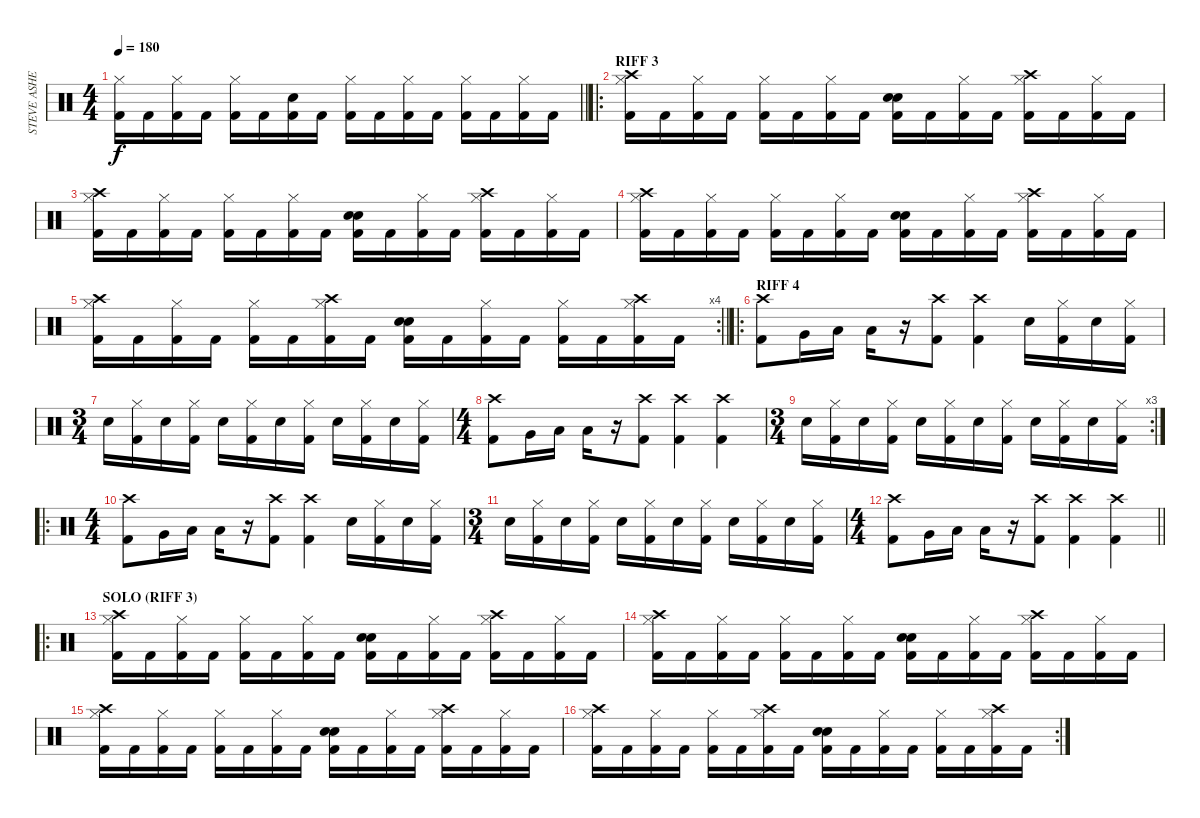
\track ("STEVE ASHEIM" "STEVE ASHE") {instrument percussion}
\staff {score}
\articulation defaults
\ts (4 4)
\tempo 180
\clef neutral
\barLineRight lightlight
\ks c
("Hi-Hat (closed)" "Kick (hit) 2").16{dy f} "Kick (hit) 2".16 ("Hi-Hat (closed)" "Kick (hit) 2").16 "Kick (hit) 2".16 ("Hi-Hat (closed)" "Kick (hit) 2").16 "Kick (hit) 2".16 ("Snare (hit) 2" "Kick (hit) 2").16 "Kick (hit) 2".16 ("Hi-Hat (closed)" "Kick (hit) 2").16 "Kick (hit) 2".16 ("Hi-Hat (closed)" "Kick (hit) 2").16 "Kick (hit) 2".16 ("Hi-Hat (closed)" "Kick (hit) 2").16 "Kick (hit) 2".16 ("Hi-Hat (closed)" "Kick (hit) 2").16 "Kick (hit) 2".16 |
\ro
\section ("" "RIFF 3")
("Crash high (hit)" "Hi-Hat (closed)" "Kick (hit) 2").16 "Kick (hit) 2".16 ("Hi-Hat (closed)" "Kick (hit) 2").16 "Kick (hit) 2".16 ("Hi-Hat (closed)" "Kick (hit) 2").16 "Kick (hit) 2".16 ("Hi-Hat (closed)" "Kick (hit) 2").16 "Kick (hit) 2".16 ("Electric Snare (hit)" "Snare (hit) 2" "Kick (hit) 2").16 "Kick (hit) 2".16 ("Hi-Hat (closed)" "Kick (hit) 2").16 "Kick (hit) 2".16 ("Crash high (hit)" "Hi-Hat (closed)" "Kick (hit) 2").16 "Kick (hit) 2".16 ("Hi-Hat (closed)" "Kick (hit) 2").16 "Kick (hit) 2".16 |
("Crash high (hit)" "Hi-Hat (closed)" "Kick (hit) 2").16 "Kick (hit) 2".16 ("Hi-Hat (closed)" "Kick (hit) 2").16 "Kick (hit) 2".16 ("Hi-Hat (closed)" "Kick (hit) 2").16 "Kick (hit) 2".16 ("Hi-Hat (closed)" "Kick (hit) 2").16 "Kick (hit) 2".16 ("Electric Snare (hit)" "Snare (hit) 2" "Kick (hit) 2").16 "Kick (hit) 2".16 ("Hi-Hat (closed)" "Kick (hit) 2").16 "Kick (hit) 2".16 ("Crash high (hit)" "Hi-Hat (closed)" "Kick (hit) 2").16 "Kick (hit) 2".16 ("Hi-Hat (closed)" "Kick (hit) 2").16 "Kick (hit) 2".16 |
("Crash high (hit)" "Hi-Hat (closed)" "Kick (hit) 2").16 "Kick (hit) 2".16 ("Hi-Hat (closed)" "Kick (hit) 2").16 "Kick (hit) 2".16 ("Hi-Hat (closed)" "Kick (hit) 2").16 "Kick (hit) 2".16 ("Hi-Hat (closed)" "Kick (hit) 2").16 "Kick (hit) 2".16 ("Electric Snare (hit)" "Snare (hit) 2" "Kick (hit) 2").16 "Kick (hit) 2".16 ("Hi-Hat (closed)" "Kick (hit) 2").16 "Kick (hit) 2".16 ("Crash high (hit)" "Hi-Hat (closed)" "Kick (hit) 2").16 "Kick (hit) 2".16 ("Hi-Hat (closed)" "Kick (hit) 2").16 "Kick (hit) 2".16 |
\rc 4
\barLineRight lightlight
("Crash high (hit)" "Hi-Hat (closed)" "Kick (hit) 2").16 "Kick (hit) 2".16 ("Hi-Hat (closed)" "Kick (hit) 2").16 "Kick (hit) 2".16 ("Hi-Hat (closed)" "Kick (hit) 2").16 "Kick (hit) 2".16 ("Crash high (hit)" "Hi-Hat (closed)" "Kick (hit) 2").16 "Kick (hit) 2".16 ("Electric Snare (hit)" "Snare (hit) 2" "Kick (hit) 2").16 "Kick (hit) 2".16 ("Hi-Hat (closed)" "Kick (hit) 2").16 "Kick (hit) 2".16 ("Hi-Hat (closed)" "Kick (hit) 2").16 "Kick (hit) 2".16 ("Crash high (hit)" "Hi-Hat (closed)" "Kick (hit) 2").16 "Kick (hit) 2".16 |
\ro
\section ("" "RIFF 4")
("Crash high (hit)" "Kick (hit) 2").8 "Very Low Tom (hit)".16 "Low Tom (hit)".16 "Low Tom (hit)".16 r.16 ("Crash high (hit)" "Kick (hit) 2").8 ("Crash high (hit)" "Kick (hit) 2").4 "Snare (hit) 2".16 ("Hi-Hat (closed)" "Kick (hit) 2").16 "Snare (hit) 2".16 ("Hi-Hat (closed)" "Kick (hit) 2").16 |
\ts (3 4)
"Snare (hit) 2".16 ("Hi-Hat (closed)" "Kick (hit) 2").16 "Snare (hit) 2".16 ("Hi-Hat (closed)" "Kick (hit) 2").16 "Snare (hit) 2".16 ("Hi-Hat (closed)" "Kick (hit) 2").16 "Snare (hit) 2".16 ("Hi-Hat (closed)" "Kick (hit) 2").16 "Snare (hit) 2".16 ("Hi-Hat (closed)" "Kick (hit) 2").16 "Snare (hit) 2".16 ("Hi-Hat (closed)" "Kick (hit) 2").16 |
\ts (4 4)
("Crash high (hit)" "Kick (hit) 2").8 "Very Low Tom (hit)".16 "Low Tom (hit)".16 "Low Tom (hit)".16 r.16 ("Crash high (hit)" "Kick (hit) 2").8 ("Crash high (hit)" "Kick (hit) 2").4 ("Crash high (hit)" "Kick (hit) 2").4 |
\rc 3
\ts (3 4)
"Snare (hit) 2".16 ("Hi-Hat (closed)" "Kick (hit) 2").16 "Snare (hit) 2".16 ("Hi-Hat (closed)" "Kick (hit) 2").16 "Snare (hit) 2".16 ("Hi-Hat (closed)" "Kick (hit) 2").16 "Snare (hit) 2".16 ("Hi-Hat (closed)" "Kick (hit) 2").16 "Snare (hit) 2".16 ("Hi-Hat (closed)" "Kick (hit) 2").16 "Snare (hit) 2".16 ("Hi-Hat (closed)" "Kick (hit) 2").16 |
\ro
\ts (4 4)
("Crash high (hit)" "Kick (hit) 2").8 "Very Low Tom (hit)".16 "Low Tom (hit)".16 "Low Tom (hit)".16 r.16 ("Crash high (hit)" "Kick (hit) 2").8 ("Crash high (hit)" "Kick (hit) 2").4 "Snare (hit) 2".16 ("Hi-Hat (closed)" "Kick (hit) 2").16 "Snare (hit) 2".16 ("Hi-Hat (closed)" "Kick (hit) 2").16 |
\ts (3 4)
"Snare (hit) 2".16 ("Hi-Hat (closed)" "Kick (hit) 2").16 "Snare (hit) 2".16 ("Hi-Hat (closed)" "Kick (hit) 2").16 "Snare (hit) 2".16 ("Hi-Hat (closed)" "Kick (hit) 2").16 "Snare (hit) 2".16 ("Hi-Hat (closed)" "Kick (hit) 2").16 "Snare (hit) 2".16 ("Hi-Hat (closed)" "Kick (hit) 2").16 "Snare (hit) 2".16 ("Hi-Hat (closed)" "Kick (hit) 2").16 |
\ts (4 4)
\barLineRight lightlight
("Crash high (hit)" "Kick (hit) 2").8 "Very Low Tom (hit)".16 "Low Tom (hit)".16 "Low Tom (hit)".16 r.16 ("Crash high (hit)" "Kick (hit) 2").8 ("Crash high (hit)" "Kick (hit) 2").4 ("Crash high (hit)" "Kick (hit) 2").4 |
\ro
\section ("" "SOLO (RIFF 3)")
("Crash high (hit)" "Hi-Hat (closed)" "Kick (hit) 2").16 "Kick (hit) 2".16 ("Hi-Hat (closed)" "Kick (hit) 2").16 "Kick (hit) 2".16 ("Hi-Hat (closed)" "Kick (hit) 2").16 "Kick (hit) 2".16 ("Hi-Hat (closed)" "Kick (hit) 2").16 "Kick (hit) 2".16 ("Electric Snare (hit)" "Snare (hit) 2" "Kick (hit) 2").16 "Kick (hit) 2".16 ("Hi-Hat (closed)" "Kick (hit) 2").16 "Kick (hit) 2".16 ("Crash high (hit)" "Hi-Hat (closed)" "Kick (hit) 2").16 "Kick (hit) 2".16 ("Hi-Hat (closed)" "Kick (hit) 2").16 "Kick (hit) 2".16 |
("Crash high (hit)" "Hi-Hat (closed)" "Kick (hit) 2").16 "Kick (hit) 2".16 ("Hi-Hat (closed)" "Kick (hit) 2").16 "Kick (hit) 2".16 ("Hi-Hat (closed)" "Kick (hit) 2").16 "Kick (hit) 2".16 ("Hi-Hat (closed)" "Kick (hit) 2").16 "Kick (hit) 2".16 ("Electric Snare (hit)" "Snare (hit) 2" "Kick (hit) 2").16 "Kick (hit) 2".16 ("Hi-Hat (closed)" "Kick (hit) 2").16 "Kick (hit) 2".16 ("Crash high (hit)" "Hi-Hat (closed)" "Kick (hit) 2").16 "Kick (hit) 2".16 ("Hi-Hat (closed)" "Kick (hit) 2").16 "Kick (hit) 2".16 |
("Crash high (hit)" "Hi-Hat (closed)" "Kick (hit) 2").16 "Kick (hit) 2".16 ("Hi-Hat (closed)" "Kick (hit) 2").16 "Kick (hit) 2".16 ("Hi-Hat (closed)" "Kick (hit) 2").16 "Kick (hit) 2".16 ("Hi-Hat (closed)" "Kick (hit) 2").16 "Kick (hit) 2".16 ("Electric Snare (hit)" "Snare (hit) 2" "Kick (hit) 2").16 "Kick (hit) 2".16 ("Hi-Hat (closed)" "Kick (hit) 2").16 "Kick (hit) 2".16 ("Crash high (hit)" "Hi-Hat (closed)" "Kick (hit) 2").16 "Kick (hit) 2".16 ("Hi-Hat (closed)" "Kick (hit) 2").16 "Kick (hit) 2".16 |
\rc 2
("Crash high (hit)" "Hi-Hat (closed)" "Kick (hit) 2").16 "Kick (hit) 2".16 ("Hi-Hat (closed)" "Kick (hit) 2").16 "Kick (hit) 2".16 ("Hi-Hat (closed)" "Kick (hit) 2").16 "Kick (hit) 2".16 ("Crash high (hit)" "Hi-Hat (closed)" "Kick (hit) 2").16 "Kick (hit) 2".16 ("Electric Snare (hit)" "Snare (hit) 2" "Kick (hit) 2").16 "Kick (hit) 2".16 ("Hi-Hat (closed)" "Kick (hit) 2").16 "Kick (hit) 2".16 ("Hi-Hat (closed)" "Kick (hit) 2").16 "Kick (hit) 2".16 ("Crash high (hit)" "Hi-Hat (closed)" "Kick (hit) 2").16 "Kick (hit) 2".16
